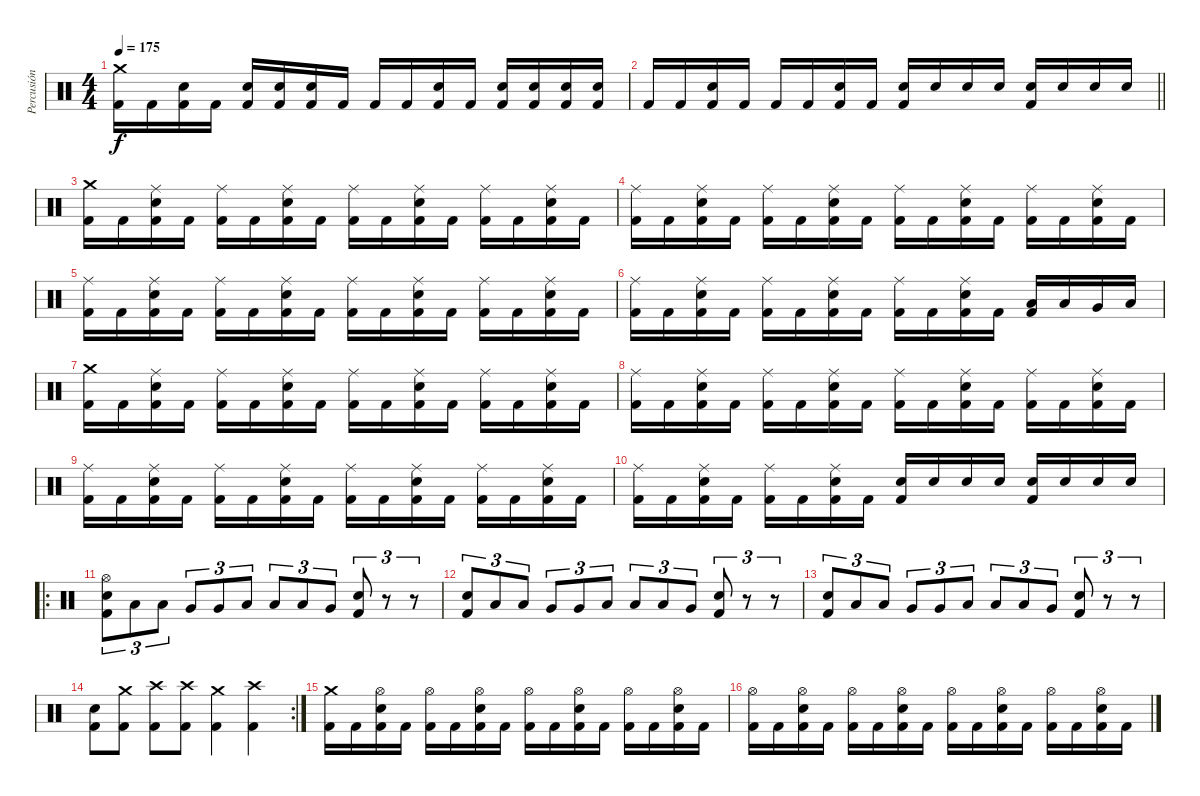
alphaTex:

\track ("Percusión" "Percusión") {instrument percussion}
\staff {score}
\articulation defaults
\ts (4 4)
\tempo 175
\clef neutral
\ks c
("Crash medium (hit)" "Kick (hit) 2").16{dy f} "Kick (hit) 2".16 ("Electric Snare (hit)" "Kick (hit) 2").16 "Kick (hit) 2".16 ("Electric Snare (hit)" "Kick (hit) 2").16 ("Electric Snare (hit)" "Kick (hit) 2").16 ("Electric Snare (hit)" "Kick (hit) 2").16 "Kick (hit) 2".16 "Kick (hit) 2".16 "Kick (hit) 2".16 ("Electric Snare (hit)" "Kick (hit) 2").16 "Kick (hit) 2".16 ("Electric Snare (hit)" "Kick (hit) 2").16 ("Electric Snare (hit)" "Kick (hit) 2").16 ("Electric Snare (hit)" "Kick (hit) 2").16 ("Electric Snare (hit)" "Kick (hit) 2").16 |
\barLineRight lightlight "Kick (hit) 2".16 "Kick (hit) 2".16
("Electric Snare (hit)" "Kick (hit) 2").16 "Kick (hit) 2".16 "Kick (hit) 2".16 "Kick (hit) 2".16 ("Electric Snare (hit)" "Kick (hit) 2").16 "Kick (hit) 2".16 ("Electric Snare (hit)" "Kick (hit) 2").16 "Electric Snare (hit)".16 "Electric Snare (hit)".16 "Electric Snare (hit)".16 ("Electric Snare (hit)" "Kick (hit) 2").16 "Electric Snare (hit)".16 "Electric Snare (hit)".16 "Electric Snare (hit)".16 |
("Crash medium (hit)" "Kick (hit) 2").16 "Kick (hit) 2".16 ("Ride (middle)" "Electric Snare (hit)" "Kick (hit) 2").16 "Kick (hit) 2".16 ("Ride (middle)" "Kick (hit) 2").16 "Kick (hit) 2".16 ("Ride (middle)" "Electric Snare (hit)" "Kick (hit) 2").16 "Kick (hit) 2".16 ("Ride (middle)" "Kick (hit) 2").16 "Kick (hit) 2".16 ("Ride (middle)" "Electric Snare (hit)" "Kick (hit) 2").16 "Kick (hit) 2".16 ("Ride (middle)" "Kick (hit) 2").16 "Kick (hit) 2".16 ("Ride (middle)" "Electric Snare (hit)" "Kick (hit) 2").16 "Kick (hit) 2".16 |
("Ride (middle)" "Kick (hit) 2").16 "Kick (hit) 2".16 ("Ride (middle)" "Electric Snare (hit)" "Kick (hit) 2").16 "Kick (hit) 2".16 ("Ride (middle)" "Kick (hit) 2").16 "Kick (hit) 2".16 ("Ride (middle)" "Electric Snare (hit)" "Kick (hit) 2").16 "Kick (hit) 2".16 ("Ride (middle)" "Kick (hit) 2").16 "Kick (hit) 2".16 ("Ride (middle)" "Electric Snare (hit)" "Kick (hit) 2").16 "Kick (hit) 2".16 ("Ride (middle)" "Kick (hit) 2").16 "Kick (hit) 2".16 ("Ride (middle)" "Electric Snare (hit)" "Kick (hit) 2").16 "Kick (hit) 2".16 |
("Ride (middle)" "Kick (hit) 2").16 "Kick (hit) 2".16 ("Ride (middle)" "Electric Snare (hit)" "Kick (hit) 2").16 "Kick (hit) 2".16 ("Ride (middle)" "Kick (hit) 2").16 "Kick (hit) 2".16 ("Ride (middle)" "Electric Snare (hit)" "Kick (hit) 2").16 "Kick (hit) 2".16 ("Ride (middle)" "Kick (hit) 2").16 "Kick (hit) 2".16 ("Ride (middle)" "Electric Snare (hit)" "Kick (hit) 2").16 "Kick (hit) 2".16 ("Ride (middle)" "Kick (hit) 2").16 "Kick (hit) 2".16 ("Ride (middle)" "Electric Snare (hit)" "Kick (hit) 2").16 "Kick (hit) 2".16 |
("Ride (middle)" "Kick (hit) 2").16 "Kick (hit) 2".16 ("Ride (middle)" "Electric Snare (hit)" "Kick (hit) 2").16 "Kick (hit) 2".16 ("Ride (middle)" "Kick (hit) 2").16 "Kick (hit) 2".16 ("Ride (middle)" "Electric Snare (hit)" "Kick (hit) 2").16 "Kick (hit) 2".16 ("Ride (middle)" "Kick (hit) 2").16 "Kick (hit) 2".16 ("Ride (middle)" "Electric Snare (hit)" "Kick (hit) 2").16 "Kick (hit) 2".16 ("Low Tom (hit)" "Kick (hit) 2").16 "Low Tom (hit)".16 "Very Low Tom (hit)".16 "Low Floor Tom (hit)".16 |
("Crash medium (hit)" "Kick (hit) 2").16 "Kick (hit) 2".16 ("Ride (middle)" "Electric Snare (hit)" "Kick (hit) 2").16 "Kick (hit) 2".16 ("Ride (middle)" "Kick (hit) 2").16 "Kick (hit) 2".16 ("Ride (middle)" "Electric Snare (hit)" "Kick (hit) 2").16 "Kick (hit) 2".16 ("Ride (middle)" "Kick (hit) 2").16 "Kick (hit) 2".16 ("Ride (middle)" "Electric Snare (hit)" "Kick (hit) 2").16 "Kick (hit) 2".16 ("Ride (middle)" "Kick (hit) 2").16 "Kick (hit) 2".16 ("Ride (middle)" "Electric Snare (hit)" "Kick (hit) 2").16 "Kick (hit) 2".16 |
("Ride (middle)" "Kick (hit) 2").16 "Kick (hit) 2".16 ("Ride (middle)" "Electric Snare (hit)" "Kick (hit) 2").16 "Kick (hit) 2".16 ("Ride (middle)" "Kick (hit) 2").16 "Kick (hit) 2".16 ("Ride (middle)" "Electric Snare (hit)" "Kick (hit) 2").16 "Kick (hit) 2".16 ("Ride (middle)" "Kick (hit) 2").16 "Kick (hit) 2".16 ("Ride (middle)" "Electric Snare (hit)" "Kick (hit) 2").16 "Kick (hit) 2".16 ("Ride (middle)" "Kick (hit) 2").16 "Kick (hit) 2".16 ("Ride (middle)" "Electric Snare (hit)" "Kick (hit) 2").16 "Kick (hit) 2".16 |
("Ride (middle)" "Kick (hit) 2").16 "Kick (hit) 2".16 ("Ride (middle)" "Electric Snare (hit)" "Kick (hit) 2").16 "Kick (hit) 2".16 ("Ride (middle)" "Kick (hit) 2").16 "Kick (hit) 2".16 ("Ride (middle)" "Electric Snare (hit)" "Kick (hit) 2").16 "Kick (hit) 2".16 ("Ride (middle)" "Kick (hit) 2").16 "Kick (hit) 2".16 ("Ride (middle)" "Electric Snare (hit)" "Kick (hit) 2").16 "Kick (hit) 2".16 ("Ride (middle)" "Kick (hit) 2").16 "Kick (hit) 2".16 ("Ride (middle)" "Electric Snare (hit)" "Kick (hit) 2").16 "Kick (hit) 2".16 |
("Ride (middle)" "Kick (hit) 2").16 "Kick (hit) 2".16 ("Ride (middle)" "Electric Snare (hit)" "Kick (hit) 2").16 "Kick (hit) 2".16 ("Ride (middle)" "Kick (hit) 2").16 "Kick (hit) 2".16 ("Ride (middle)" "Electric Snare (hit)" "Kick (hit) 2").16 "Kick (hit) 2".16 ("Electric Snare (hit)" "Kick (hit) 2").16 "Electric Snare (hit)".16 "Electric Snare (hit)".16 "Electric Snare (hit)".16 ("Electric Snare (hit)" "Kick (hit) 2").16 "Electric Snare (hit)".16 "Electric Snare (hit)".16 "Electric Snare (hit)".16 |
\ro
("Hi-Hat (open)" "Electric Snare (hit)" "Kick (hit) 2").8{tu (3 2)} "Low Tom (hit)".8{tu (3 2)} "Low Tom (hit)".8{tu (3 2)} "Very Low Tom (hit)".8{tu (3 2)} "Very Low Tom (hit)".8{tu (3 2)} "Low Floor Tom (hit)".8{tu (3 2)} "Low Tom (hit)".8{tu (3 2)} "Low Tom (hit)".8{tu (3 2)} "Very Low Tom (hit)".8{tu (3 2)} ("Electric Snare (hit)" "Kick (hit) 2").8{tu (3 2)} r.8{tu (3 2)} r.8{tu (3 2)} |
("Electric Snare (hit)" "Kick (hit) 2").8{tu (3 2)} "Low Tom (hit)".8{tu (3 2)} "Low Tom (hit)".8{tu (3 2)} "Very Low Tom (hit)".8{tu (3 2)} "Very Low Tom (hit)".8{tu (3 2)} "Low Floor Tom (hit)".8{tu (3 2)} "Low Tom (hit)".8{tu (3 2)} "Low Tom (hit)".8{tu (3 2)} "Very Low Tom (hit)".8{tu (3 2)} ("Electric Snare (hit)" "Kick (hit) 2").8{tu (3 2)} r.8{tu (3 2)} r.8{tu (3 2)} |
("Electric Snare (hit)" "Kick (hit) 2").8{tu (3 2)} "Low Tom (hit)".8{tu (3 2)} "Low Tom (hit)".8{tu (3 2)} "Very Low Tom (hit)".8{tu (3 2)} "Very Low Tom (hit)".8{tu (3 2)} "Low Floor Tom (hit)".8{tu (3 2)} "Low Tom (hit)".8{tu (3 2)} "Low Tom (hit)".8{tu (3 2)} "Very Low Tom (hit)".8{tu (3 2)} ("Electric Snare (hit)" "Kick (hit) 2").8{tu (3 2)} r.8{tu (3 2)} r.8{tu (3 2)} |
\rc 2
("Electric Snare (hit)" "Kick (hit) 2").8 ("Crash medium (hit)" "Kick (hit) 2").8 ("Crash high (hit)" "Kick (hit) 2").8 ("Crash high (hit)" "Kick (hit) 2").8 ("Crash medium (hit)" "Kick (hit) 2").4 ("Crash high (hit)" "Kick (hit) 2").4 |
("Crash medium (hit)" "Kick (hit) 2").16 "Kick (hit) 2".16 ("Hi-Hat (open)" "Electric Snare (hit)" "Kick (hit) 2").16 "Kick (hit) 2".16 ("Hi-Hat (open)" "Kick (hit) 2").16 "Kick (hit) 2".16 ("Hi-Hat (open)" "Electric Snare (hit)" "Kick (hit) 2").16 "Kick (hit) 2".16 ("Hi-Hat (open)" "Kick (hit) 2").16 "Kick (hit) 2".16 ("Hi-Hat (open)" "Electric Snare (hit)" "Kick (hit) 2").16 "Kick (hit) 2".16 ("Hi-Hat (open)" "Kick (hit) 2").16 "Kick (hit) 2".16 ("Hi-Hat (open)" "Electric Snare (hit)" "Kick (hit) 2").16 "Kick (hit) 2".16 |
("Hi-Hat (open)" "Kick (hit) 2").16 "Kick (hit) 2".16 ("Hi-Hat (open)" "Electric Snare (hit)" "Kick (hit) 2").16 "Kick (hit) 2".16 ("Hi-Hat (open)" "Kick (hit) 2").16 "Kick (hit) 2".16 ("Hi-Hat (open)" "Electric Snare (hit)" "Kick (hit) 2").16 "Kick (hit) 2".16 ("Hi-Hat (open)" "Kick (hit) 2").16 "Kick (hit) 2".16 ("Hi-Hat (open)" "Electric Snare (hit)" "Kick (hit) 2").16 "Kick (hit) 2".16 ("Hi-Hat (open)" "Kick (hit) 2").16 "Kick (hit) 2".16 ("Hi-Hat (open)" "Electric Snare (hit)" "Kick (hit) 2").16 "Kick (hit) 2".16
